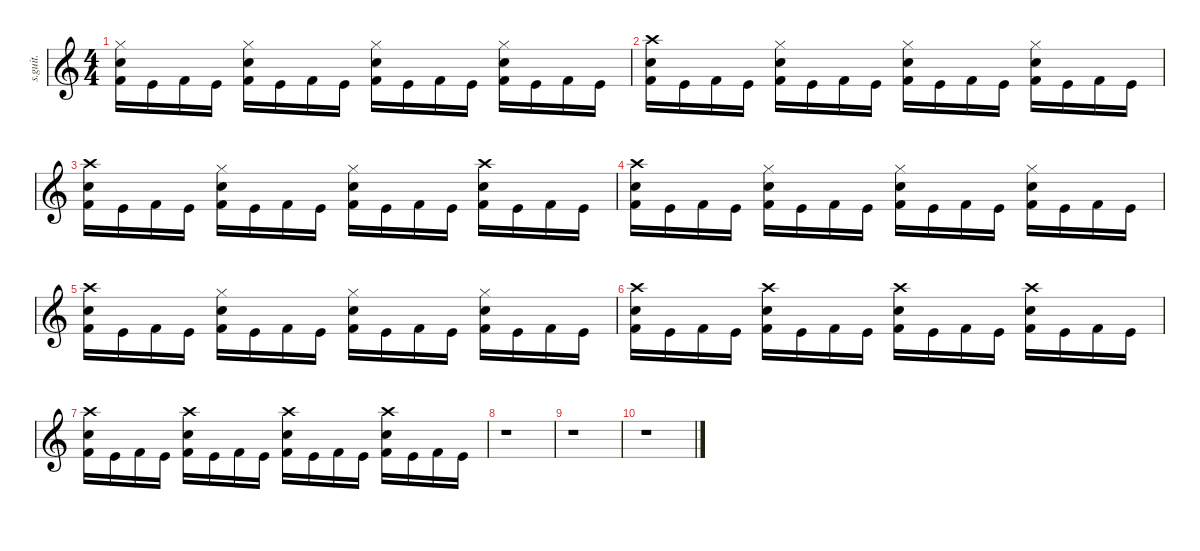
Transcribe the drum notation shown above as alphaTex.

\defaultSystemsLayout 4
\hideDynamics
\bracketExtendMode nobrackets
\track ("Lars Ulrich - Drumzzz" "s.guit.") {instrument percussion}
\staff {score}
\articulation defaults
\ts (4 4)
\tempo (142 hide)
\clef g2
\ks c
("Hi-Hat (closed)" "Snare (hit) 2" "Kick (hit) 2").16{lyrics (0 "") lyrics (1 "") lyrics (2 "") lyrics (3 "") lyrics (4 "") dy f} "Kick (hit)".16{lyrics (0 "") lyrics (1 "") lyrics (2 "") lyrics (3 "") lyrics (4 "")} "Kick (hit) 2".16{lyrics (0 "") lyrics (1 "") lyrics (2 "") lyrics (3 "") lyrics (4 "")} "Kick (hit)".16{lyrics (0 "") lyrics (1 "") lyrics (2 "") lyrics (3 "") lyrics (4 "")} ("Hi-Hat (closed)" "Snare (hit) 2" "Kick (hit) 2").16{lyrics (0 "") lyrics (1 "") lyrics (2 "") lyrics (3 "") lyrics (4 "")} "Kick (hit)".16{lyrics (0 "") lyrics (1 "") lyrics (2 "") lyrics (3 "") lyrics (4 "")} "Kick (hit) 2".16{lyrics (0 "") lyrics (1 "") lyrics (2 "") lyrics (3 "") lyrics (4 "")} "Kick (hit)".16{lyrics (0 "") lyrics (1 "") lyrics (2 "") lyrics (3 "") lyrics (4 "")} ("Hi-Hat (closed)" "Snare (hit) 2" "Kick (hit) 2").16{lyrics (0 "") lyrics (1 "") lyrics (2 "") lyrics (3 "") lyrics (4 "")} "Kick (hit)".16{lyrics (0 "") lyrics (1 "") lyrics (2 "") lyrics (3 "") lyrics (4 "")} "Kick (hit) 2".16{lyrics (0 "") lyrics (1 "") lyrics (2 "") lyrics (3 "") lyrics (4 "")} "Kick (hit)".16{lyrics (0 "") lyrics (1 "") lyrics (2 "") lyrics (3 "") lyrics (4 "")} ("Hi-Hat (closed)" "Snare (hit) 2" "Kick (hit) 2").16{lyrics (0 "") lyrics (1 "") lyrics (2 "") lyrics (3 "") lyrics (4 "")} "Kick (hit)".16{lyrics (0 "") lyrics (1 "") lyrics (2 "") lyrics (3 "") lyrics (4 "")} "Kick (hit) 2".16{lyrics (0 "") lyrics (1 "") lyrics (2 "") lyrics (3 "") lyrics (4 "")} "Kick (hit)".16{lyrics (0 "") lyrics (1 "") lyrics (2 "") lyrics (3 "") lyrics (4 "")} |
("Crash high (hit)" "Snare (hit) 2" "Kick (hit) 2").16{lyrics (0 "") lyrics (1 "") lyrics (2 "") lyrics (3 "") lyrics (4 "")} "Kick (hit)".16{lyrics (0 "") lyrics (1 "") lyrics (2 "") lyrics (3 "") lyrics (4 "")} "Kick (hit) 2".16{lyrics (0 "") lyrics (1 "") lyrics (2 "") lyrics (3 "") lyrics (4 "")} "Kick (hit)".16{lyrics (0 "") lyrics (1 "") lyrics (2 "") lyrics (3 "") lyrics (4 "")} ("Hi-Hat (closed)" "Snare (hit) 2" "Kick (hit) 2").16{lyrics (0 "") lyrics (1 "") lyrics (2 "") lyrics (3 "") lyrics (4 "")} "Kick (hit)".16{lyrics (0 "") lyrics (1 "") lyrics (2 "") lyrics (3 "") lyrics (4 "")} "Kick (hit) 2".16{lyrics (0 "") lyrics (1 "") lyrics (2 "") lyrics (3 "") lyrics (4 "")} "Kick (hit)".16{lyrics (0 "") lyrics (1 "") lyrics (2 "") lyrics (3 "") lyrics (4 "")} ("Hi-Hat (closed)" "Snare (hit) 2" "Kick (hit) 2").16{lyrics (0 "") lyrics (1 "") lyrics (2 "") lyrics (3 "") lyrics (4 "")} "Kick (hit)".16{lyrics (0 "") lyrics (1 "") lyrics (2 "") lyrics (3 "") lyrics (4 "")} "Kick (hit) 2".16{lyrics (0 "") lyrics (1 "") lyrics (2 "") lyrics (3 "") lyrics (4 "")} "Kick (hit)".16{lyrics (0 "") lyrics (1 "") lyrics (2 "") lyrics (3 "") lyrics (4 "")} ("Hi-Hat (closed)" "Snare (hit) 2" "Kick (hit) 2").16{lyrics (0 "") lyrics (1 "") lyrics (2 "") lyrics (3 "") lyrics (4 "")} "Kick (hit)".16{lyrics (0 "") lyrics (1 "") lyrics (2 "") lyrics (3 "") lyrics (4 "")} "Kick (hit) 2".16{lyrics (0 "") lyrics (1 "") lyrics (2 "") lyrics (3 "") lyrics (4 "")} "Kick (hit)".16{lyrics (0 "") lyrics (1 "") lyrics (2 "") lyrics (3 "") lyrics (4 "")} |
("Crash high (hit)" "Snare (hit) 2" "Kick (hit) 2").16{lyrics (0 "") lyrics (1 "") lyrics (2 "") lyrics (3 "") lyrics (4 "")} "Kick (hit)".16{lyrics (0 "") lyrics (1 "") lyrics (2 "") lyrics (3 "") lyrics (4 "")} "Kick (hit) 2".16{lyrics (0 "") lyrics (1 "") lyrics (2 "") lyrics (3 "") lyrics (4 "")} "Kick (hit)".16{lyrics (0 "") lyrics (1 "") lyrics (2 "") lyrics (3 "") lyrics (4 "")} ("Hi-Hat (closed)" "Snare (hit) 2" "Kick (hit) 2").16{lyrics (0 "") lyrics (1 "") lyrics (2 "") lyrics (3 "") lyrics (4 "")} "Kick (hit)".16{lyrics (0 "") lyrics (1 "") lyrics (2 "") lyrics (3 "") lyrics (4 "")} "Kick (hit) 2".16{lyrics (0 "") lyrics (1 "") lyrics (2 "") lyrics (3 "") lyrics (4 "")} "Kick (hit)".16{lyrics (0 "") lyrics (1 "") lyrics (2 "") lyrics (3 "") lyrics (4 "")} ("Hi-Hat (closed)" "Snare (hit) 2" "Kick (hit) 2").16{lyrics (0 "") lyrics (1 "") lyrics (2 "") lyrics (3 "") lyrics (4 "")} "Kick (hit)".16{lyrics (0 "") lyrics (1 "") lyrics (2 "") lyrics (3 "") lyrics (4 "")} "Kick (hit) 2".16{lyrics (0 "") lyrics (1 "") lyrics (2 "") lyrics (3 "") lyrics (4 "")} "Kick (hit)".16{lyrics (0 "") lyrics (1 "") lyrics (2 "") lyrics (3 "") lyrics (4 "")} ("Crash high (hit)" "Snare (hit) 2" "Kick (hit) 2").16{lyrics (0 "") lyrics (1 "") lyrics (2 "") lyrics (3 "") lyrics (4 "")} "Kick (hit)".16{lyrics (0 "") lyrics (1 "") lyrics (2 "") lyrics (3 "") lyrics (4 "")} "Kick (hit) 2".16{lyrics (0 "") lyrics (1 "") lyrics (2 "") lyrics (3 "") lyrics (4 "")} "Kick (hit)".16{lyrics (0 "") lyrics (1 "") lyrics (2 "") lyrics (3 "") lyrics (4 "")} |
("Crash high (hit)" "Snare (hit) 2" "Kick (hit) 2").16{lyrics (0 "") lyrics (1 "") lyrics (2 "") lyrics (3 "") lyrics (4 "")} "Kick (hit)".16{lyrics (0 "") lyrics (1 "") lyrics (2 "") lyrics (3 "") lyrics (4 "")} "Kick (hit) 2".16{lyrics (0 "") lyrics (1 "") lyrics (2 "") lyrics (3 "") lyrics (4 "")} "Kick (hit)".16{lyrics (0 "") lyrics (1 "") lyrics (2 "") lyrics (3 "") lyrics (4 "")} ("Hi-Hat (closed)" "Snare (hit) 2" "Kick (hit) 2").16{lyrics (0 "") lyrics (1 "") lyrics (2 "") lyrics (3 "") lyrics (4 "")} "Kick (hit)".16{lyrics (0 "") lyrics (1 "") lyrics (2 "") lyrics (3 "") lyrics (4 "")} "Kick (hit) 2".16{lyrics (0 "") lyrics (1 "") lyrics (2 "") lyrics (3 "") lyrics (4 "")} "Kick (hit)".16{lyrics (0 "") lyrics (1 "") lyrics (2 "") lyrics (3 "") lyrics (4 "")} ("Hi-Hat (closed)" "Snare (hit) 2" "Kick (hit) 2").16{lyrics (0 "") lyrics (1 "") lyrics (2 "") lyrics (3 "") lyrics (4 "")} "Kick (hit)".16{lyrics (0 "") lyrics (1 "") lyrics (2 "") lyrics (3 "") lyrics (4 "")} "Kick (hit) 2".16{lyrics (0 "") lyrics (1 "") lyrics (2 "") lyrics (3 "") lyrics (4 "")} "Kick (hit)".16{lyrics (0 "") lyrics (1 "") lyrics (2 "") lyrics (3 "") lyrics (4 "")} ("Hi-Hat (closed)" "Snare (hit) 2" "Kick (hit) 2").16{lyrics (0 "") lyrics (1 "") lyrics (2 "") lyrics (3 "") lyrics (4 "")} "Kick (hit)".16{lyrics (0 "") lyrics (1 "") lyrics (2 "") lyrics (3 "") lyrics (4 "")} "Kick (hit) 2".16{lyrics (0 "") lyrics (1 "") lyrics (2 "") lyrics (3 "") lyrics (4 "")} "Kick (hit)".16{lyrics (0 "") lyrics (1 "") lyrics (2 "") lyrics (3 "") lyrics (4 "")} |
("Crash high (hit)" "Snare (hit) 2" "Kick (hit) 2").16{lyrics (0 "") lyrics (1 "") lyrics (2 "") lyrics (3 "") lyrics (4 "")} "Kick (hit)".16{lyrics (0 "") lyrics (1 "") lyrics (2 "") lyrics (3 "") lyrics (4 "")} "Kick (hit) 2".16{lyrics (0 "") lyrics (1 "") lyrics (2 "") lyrics (3 "") lyrics (4 "")} "Kick (hit)".16{lyrics (0 "") lyrics (1 "") lyrics (2 "") lyrics (3 "") lyrics (4 "")} ("Hi-Hat (closed)" "Snare (hit) 2" "Kick (hit) 2").16{lyrics (0 "") lyrics (1 "") lyrics (2 "") lyrics (3 "") lyrics (4 "")} "Kick (hit)".16{lyrics (0 "") lyrics (1 "") lyrics (2 "") lyrics (3 "") lyrics (4 "")} "Kick (hit) 2".16{lyrics (0 "") lyrics (1 "") lyrics (2 "") lyrics (3 "") lyrics (4 "")} "Kick (hit)".16{lyrics (0 "") lyrics (1 "") lyrics (2 "") lyrics (3 "") lyrics (4 "")} ("Hi-Hat (closed)" "Snare (hit) 2" "Kick (hit) 2").16{lyrics (0 "") lyrics (1 "") lyrics (2 "") lyrics (3 "") lyrics (4 "")} "Kick (hit)".16{lyrics (0 "") lyrics (1 "") lyrics (2 "") lyrics (3 "") lyrics (4 "")} "Kick (hit) 2".16{lyrics (0 "") lyrics (1 "") lyrics (2 "") lyrics (3 "") lyrics (4 "")} "Kick (hit)".16{lyrics (0 "") lyrics (1 "") lyrics (2 "") lyrics (3 "") lyrics (4 "")} ("Hi-Hat (closed)" "Snare (hit) 2" "Kick (hit) 2").16{lyrics (0 "") lyrics (1 "") lyrics (2 "") lyrics (3 "") lyrics (4 "")} "Kick (hit)".16{lyrics (0 "") lyrics (1 "") lyrics (2 "") lyrics (3 "") lyrics (4 "")} "Kick (hit) 2".16{lyrics (0 "") lyrics (1 "") lyrics (2 "") lyrics (3 "") lyrics (4 "")} "Kick (hit)".16{lyrics (0 "") lyrics (1 "") lyrics (2 "") lyrics (3 "") lyrics (4 "")} |
("Crash high (hit)" "Snare (hit) 2" "Kick (hit) 2").16{lyrics (0 "") lyrics (1 "") lyrics (2 "") lyrics (3 "") lyrics (4 "")} "Kick (hit)".16{lyrics (0 "") lyrics (1 "") lyrics (2 "") lyrics (3 "") lyrics (4 "")} "Kick (hit) 2".16{lyrics (0 "") lyrics (1 "") lyrics (2 "") lyrics (3 "") lyrics (4 "")} "Kick (hit)".16{lyrics (0 "") lyrics (1 "") lyrics (2 "") lyrics (3 "") lyrics (4 "")} ("Crash high (hit)" "Snare (hit) 2" "Kick (hit) 2").16{lyrics (0 "") lyrics (1 "") lyrics (2 "") lyrics (3 "") lyrics (4 "")} "Kick (hit)".16{lyrics (0 "") lyrics (1 "") lyrics (2 "") lyrics (3 "") lyrics (4 "")} "Kick (hit) 2".16{lyrics (0 "") lyrics (1 "") lyrics (2 "") lyrics (3 "") lyrics (4 "")} "Kick (hit)".16{lyrics (0 "") lyrics (1 "") lyrics (2 "") lyrics (3 "") lyrics (4 "")} ("Crash high (hit)" "Snare (hit) 2" "Kick (hit) 2").16{lyrics (0 "") lyrics (1 "") lyrics (2 "") lyrics (3 "") lyrics (4 "")} "Kick (hit)".16{lyrics (0 "") lyrics (1 "") lyrics (2 "") lyrics (3 "") lyrics (4 "")} "Kick (hit) 2".16{lyrics (0 "") lyrics (1 "") lyrics (2 "") lyrics (3 "") lyrics (4 "")} "Kick (hit)".16{lyrics (0 "") lyrics (1 "") lyrics (2 "") lyrics (3 "") lyrics (4 "")} ("Crash high (hit)" "Snare (hit) 2" "Kick (hit) 2").16{lyrics (0 "") lyrics (1 "") lyrics (2 "") lyrics (3 "") lyrics (4 "")} "Kick (hit)".16{lyrics (0 "") lyrics (1 "") lyrics (2 "") lyrics (3 "") lyrics (4 "")} "Kick (hit) 2".16{lyrics (0 "") lyrics (1 "") lyrics (2 "") lyrics (3 "") lyrics (4 "")} "Kick (hit)".16{lyrics (0 "") lyrics (1 "") lyrics (2 "") lyrics (3 "") lyrics (4 "")} |
("Crash high (hit)" "Snare (hit) 2" "Kick (hit) 2").16{lyrics (0 "") lyrics (1 "") lyrics (2 "") lyrics (3 "") lyrics (4 "")} "Kick (hit)".16{lyrics (0 "") lyrics (1 "") lyrics (2 "") lyrics (3 "") lyrics (4 "")} "Kick (hit) 2".16{lyrics (0 "") lyrics (1 "") lyrics (2 "") lyrics (3 "") lyrics (4 "")} "Kick (hit)".16{lyrics (0 "") lyrics (1 "") lyrics (2 "") lyrics (3 "") lyrics (4 "")} ("Crash high (hit)" "Snare (hit) 2" "Kick (hit) 2").16{lyrics (0 "") lyrics (1 "") lyrics (2 "") lyrics (3 "") lyrics (4 "")} "Kick (hit)".16{lyrics (0 "") lyrics (1 "") lyrics (2 "") lyrics (3 "") lyrics (4 "")} "Kick (hit) 2".16{lyrics (0 "") lyrics (1 "") lyrics (2 "") lyrics (3 "") lyrics (4 "")} "Kick (hit)".16{lyrics (0 "") lyrics (1 "") lyrics (2 "") lyrics (3 "") lyrics (4 "")} ("Crash high (hit)" "Snare (hit) 2" "Kick (hit) 2").16{lyrics (0 "") lyrics (1 "") lyrics (2 "") lyrics (3 "") lyrics (4 "")} "Kick (hit)".16{lyrics (0 "") lyrics (1 "") lyrics (2 "") lyrics (3 "") lyrics (4 "")} "Kick (hit) 2".16{lyrics (0 "") lyrics (1 "") lyrics (2 "") lyrics (3 "") lyrics (4 "")} "Kick (hit)".16{lyrics (0 "") lyrics (1 "") lyrics (2 "") lyrics (3 "") lyrics (4 "")} ("Crash high (hit)" "Snare (hit) 2" "Kick (hit) 2").16{lyrics (0 "") lyrics (1 "") lyrics (2 "") lyrics (3 "") lyrics (4 "")} "Kick (hit)".16{lyrics (0 "") lyrics (1 "") lyrics (2 "") lyrics (3 "") lyrics (4 "")} "Kick (hit) 2".16{lyrics (0 "") lyrics (1 "") lyrics (2 "") lyrics (3 "") lyrics (4 "")} "Kick (hit)".16{lyrics (0 "") lyrics (1 "") lyrics (2 "") lyrics (3 "") lyrics (4 "")} |
r.1 |
r.1 |
r.1
